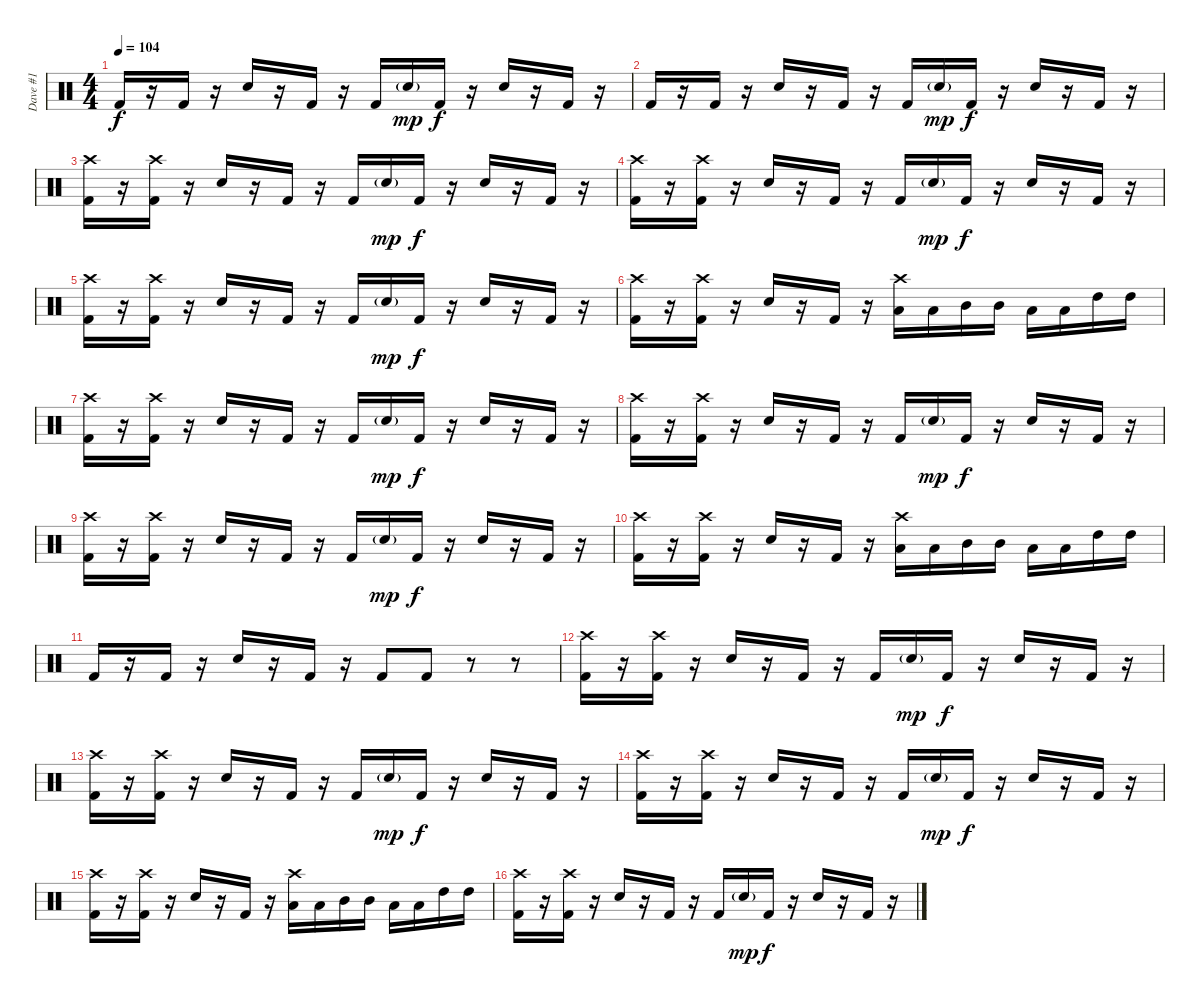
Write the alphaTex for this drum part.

\track ("Dave #1" "Dave #1") {instrument percussion}
\staff {score}
\articulation defaults
\ts (4 4)
\tempo 104
\clef neutral
\ks c "Kick (hit) 2".16{dy f}
r.16 "Kick (hit) 2".16 r.16 "Snare (hit) 2".16 r.16 "Kick (hit) 2".16 r.16 "Kick (hit) 2".16 "Snare (hit) 2"{g}.16{dy mp} "Kick (hit) 2".16{dy f} r.16 "Snare (hit) 2".16 r.16 "Kick (hit) 2".16 r.16 |
"Kick (hit) 2".16 r.16 "Kick (hit) 2".16 r.16 "Snare (hit) 2".16 r.16 "Kick (hit) 2".16 r.16 "Kick (hit) 2".16 "Snare (hit) 2"{g}.16{dy mp} "Kick (hit) 2".16{dy f} r.16 "Snare (hit) 2".16 r.16 "Kick (hit) 2".16 r.16 |
("Crash high (hit)" "Kick (hit) 2").16 r.16 ("Crash high (hit)" "Kick (hit) 2").16 r.16 "Snare (hit) 2".16 r.16 "Kick (hit) 2".16 r.16 "Kick (hit) 2".16 "Snare (hit) 2"{g}.16{dy mp} "Kick (hit) 2".16{dy f} r.16 "Snare (hit) 2".16 r.16 "Kick (hit) 2".16 r.16 |
("Crash high (hit)" "Kick (hit) 2").16 r.16 ("Crash high (hit)" "Kick (hit) 2").16 r.16 "Snare (hit) 2".16 r.16 "Kick (hit) 2".16 r.16 "Kick (hit) 2".16 "Snare (hit) 2"{g}.16{dy mp} "Kick (hit) 2".16{dy f} r.16 "Snare (hit) 2".16 r.16 "Kick (hit) 2".16 r.16 |
("Crash high (hit)" "Kick (hit) 2").16 r.16 ("Crash high (hit)" "Kick (hit) 2").16 r.16 "Snare (hit) 2".16 r.16 "Kick (hit) 2".16 r.16 "Kick (hit) 2".16 "Snare (hit) 2"{g}.16{dy mp} "Kick (hit) 2".16{dy f} r.16 "Snare (hit) 2".16 r.16 "Kick (hit) 2".16 r.16 |
("Crash high (hit)" "Kick (hit) 2").16 r.16 ("Crash high (hit)" "Kick (hit) 2").16 r.16 "Snare (hit) 2".16 r.16 "Kick (hit) 2".16 r.16 ("Crash high (hit)" "Low Tom (hit)").16 "Low Tom (hit)".16 "Mid Tom (hit)".16 "Mid Tom (hit)".16 "Low Tom (hit)".16 "Low Tom (hit)".16 "High Tom (hit)".16 "High Tom (hit)".16 |
("Crash high (hit)" "Kick (hit) 2").16 r.16 ("Crash high (hit)" "Kick (hit) 2").16 r.16 "Snare (hit) 2".16 r.16 "Kick (hit) 2".16 r.16 "Kick (hit) 2".16 "Snare (hit) 2"{g}.16{dy mp} "Kick (hit) 2".16{dy f} r.16 "Snare (hit) 2".16 r.16 "Kick (hit) 2".16 r.16 |
("Crash high (hit)" "Kick (hit) 2").16 r.16 ("Crash high (hit)" "Kick (hit) 2").16 r.16 "Snare (hit) 2".16 r.16 "Kick (hit) 2".16 r.16 "Kick (hit) 2".16 "Snare (hit) 2"{g}.16{dy mp} "Kick (hit) 2".16{dy f} r.16 "Snare (hit) 2".16 r.16 "Kick (hit) 2".16 r.16 |
("Crash high (hit)" "Kick (hit) 2").16 r.16 ("Crash high (hit)" "Kick (hit) 2").16 r.16 "Snare (hit) 2".16 r.16 "Kick (hit) 2".16 r.16 "Kick (hit) 2".16 "Snare (hit) 2"{g}.16{dy mp} "Kick (hit) 2".16{dy f} r.16 "Snare (hit) 2".16 r.16 "Kick (hit) 2".16 r.16 |
("Crash high (hit)" "Kick (hit) 2").16 r.16 ("Crash high (hit)" "Kick (hit) 2").16 r.16 "Snare (hit) 2".16 r.16 "Kick (hit) 2".16 r.16 ("Crash high (hit)" "Low Tom (hit)").16 "Low Tom (hit)".16 "Mid Tom (hit)".16 "Mid Tom (hit)".16 "Low Tom (hit)".16 "Low Tom (hit)".16 "High Tom (hit)".16 "High Tom (hit)".16 |
"Kick (hit) 2".16 r.16 "Kick (hit) 2".16 r.16 "Snare (hit) 2".16 r.16 "Kick (hit) 2".16 r.16 "Kick (hit) 2".8 "Kick (hit) 2".8 r.8 r.8 |
("Crash high (hit)" "Kick (hit) 2").16 r.16 ("Crash high (hit)" "Kick (hit) 2").16 r.16 "Snare (hit) 2".16 r.16 "Kick (hit) 2".16 r.16 "Kick (hit) 2".16 "Snare (hit) 2"{g}.16{dy mp} "Kick (hit) 2".16{dy f} r.16 "Snare (hit) 2".16 r.16 "Kick (hit) 2".16 r.16 |
("Crash high (hit)" "Kick (hit) 2").16 r.16 ("Crash high (hit)" "Kick (hit) 2").16 r.16 "Snare (hit) 2".16 r.16 "Kick (hit) 2".16 r.16 "Kick (hit) 2".16 "Snare (hit) 2"{g}.16{dy mp} "Kick (hit) 2".16{dy f} r.16 "Snare (hit) 2".16 r.16 "Kick (hit) 2".16 r.16 |
("Crash high (hit)" "Kick (hit) 2").16 r.16 ("Crash high (hit)" "Kick (hit) 2").16 r.16 "Snare (hit) 2".16 r.16 "Kick (hit) 2".16 r.16 "Kick (hit) 2".16 "Snare (hit) 2"{g}.16{dy mp} "Kick (hit) 2".16{dy f} r.16 "Snare (hit) 2".16 r.16 "Kick (hit) 2".16 r.16 |
("Crash high (hit)" "Kick (hit) 2").16 r.16 ("Crash high (hit)" "Kick (hit) 2").16 r.16 "Snare (hit) 2".16 r.16 "Kick (hit) 2".16 r.16 ("Crash high (hit)" "Low Tom (hit)").16 "Low Tom (hit)".16 "Mid Tom (hit)".16 "Mid Tom (hit)".16 "Low Tom (hit)".16 "Low Tom (hit)".16 "High Tom (hit)".16 "High Tom (hit)".16 |
("Crash high (hit)" "Kick (hit) 2").16 r.16 ("Crash high (hit)" "Kick (hit) 2").16 r.16 "Snare (hit) 2".16 r.16 "Kick (hit) 2".16 r.16 "Kick (hit) 2".16 "Snare (hit) 2"{g}.16{dy mp} "Kick (hit) 2".16{dy f} r.16 "Snare (hit) 2".16 r.16 "Kick (hit) 2".16 r.16
